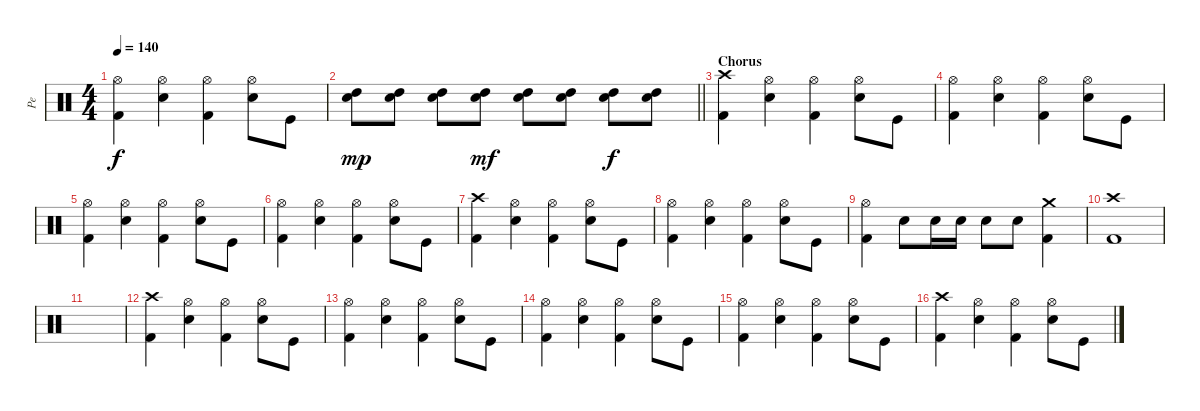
\track ("Pe" "Pe") {instrument percussion}
\staff {score}
\articulation defaults
\ts (4 4)
\tempo 140
\clef neutral
\ks c
("Kick (hit) 2" "Hi-Hat (open)").4{dy f} ("Electric Snare (hit)" "Hi-Hat (open)").4 ("Kick (hit) 2" "Hi-Hat (open)").4 ("Electric Snare (hit)" "Hi-Hat (open)").8 "Kick (hit)".8 |
\barLineRight lightlight
("Electric Snare (hit)" "High Tom (hit)").8{dy mp} ("Electric Snare (hit)" "High Tom (hit)").8 ("Electric Snare (hit)" "High Tom (hit)").8 ("Electric Snare (hit)" "High Tom (hit)").8{dy mf} ("Electric Snare (hit)" "High Tom (hit)").8 ("Electric Snare (hit)" "High Tom (hit)").8 ("Electric Snare (hit)" "High Tom (hit)").8{dy f} ("Electric Snare (hit)" "High Tom (hit)").8 |
\section ("" "Chorus")
("Kick (hit) 2" "Crash high (hit)").4 ("Electric Snare (hit)" "Hi-Hat (open)").4 ("Kick (hit) 2" "Hi-Hat (open)").4 ("Electric Snare (hit)" "Hi-Hat (open)").8 "Kick (hit)".8 |
("Kick (hit) 2" "Hi-Hat (open)").4 ("Electric Snare (hit)" "Hi-Hat (open)").4 ("Kick (hit) 2" "Hi-Hat (open)").4 ("Electric Snare (hit)" "Hi-Hat (open)").8 "Kick (hit)".8 |
("Kick (hit) 2" "Hi-Hat (open)").4 ("Electric Snare (hit)" "Hi-Hat (open)").4 ("Kick (hit) 2" "Hi-Hat (open)").4 ("Electric Snare (hit)" "Hi-Hat (open)").8 "Kick (hit)".8 |
("Kick (hit) 2" "Hi-Hat (open)").4 ("Electric Snare (hit)" "Hi-Hat (open)").4 ("Kick (hit) 2" "Hi-Hat (open)").4 ("Electric Snare (hit)" "Hi-Hat (open)").8 "Kick (hit)".8 |
("Kick (hit) 2" "Crash high (hit)").4 ("Electric Snare (hit)" "Hi-Hat (open)").4 ("Kick (hit) 2" "Hi-Hat (open)").4 ("Electric Snare (hit)" "Hi-Hat (open)").8 "Kick (hit)".8 |
("Kick (hit) 2" "Hi-Hat (open)").4 ("Electric Snare (hit)" "Hi-Hat (open)").4 ("Kick (hit) 2" "Hi-Hat (open)").4 ("Electric Snare (hit)" "Hi-Hat (open)").8 "Kick (hit)".8 |
("Kick (hit) 2" "Hi-Hat (open)").4 "Electric Snare (hit)".8 "Electric Snare (hit)".16 "Electric Snare (hit)".16 "Electric Snare (hit)".8 "Electric Snare (hit)".8 ("Kick (hit) 2" "Crash medium (hit)").4 |
("Kick (hit) 2" "Crash high (hit)").1 |
|
("Kick (hit) 2" "Crash high (hit)").4 ("Electric Snare (hit)" "Hi-Hat (open)").4 ("Kick (hit) 2" "Hi-Hat (open)").4 ("Electric Snare (hit)" "Hi-Hat (open)").8 "Kick (hit)".8 |
("Kick (hit) 2" "Hi-Hat (open)").4 ("Electric Snare (hit)" "Hi-Hat (open)").4 ("Kick (hit) 2" "Hi-Hat (open)").4 ("Electric Snare (hit)" "Hi-Hat (open)").8 "Kick (hit)".8 |
("Kick (hit) 2" "Hi-Hat (open)").4 ("Electric Snare (hit)" "Hi-Hat (open)").4 ("Kick (hit) 2" "Hi-Hat (open)").4 ("Electric Snare (hit)" "Hi-Hat (open)").8 "Kick (hit)".8 |
("Kick (hit) 2" "Hi-Hat (open)").4 ("Electric Snare (hit)" "Hi-Hat (open)").4 ("Kick (hit) 2" "Hi-Hat (open)").4 ("Electric Snare (hit)" "Hi-Hat (open)").8 "Kick (hit)".8 |
("Kick (hit) 2" "Crash high (hit)").4 ("Electric Snare (hit)" "Hi-Hat (open)").4 ("Kick (hit) 2" "Hi-Hat (open)").4 ("Electric Snare (hit)" "Hi-Hat (open)").8 "Kick (hit)".8
